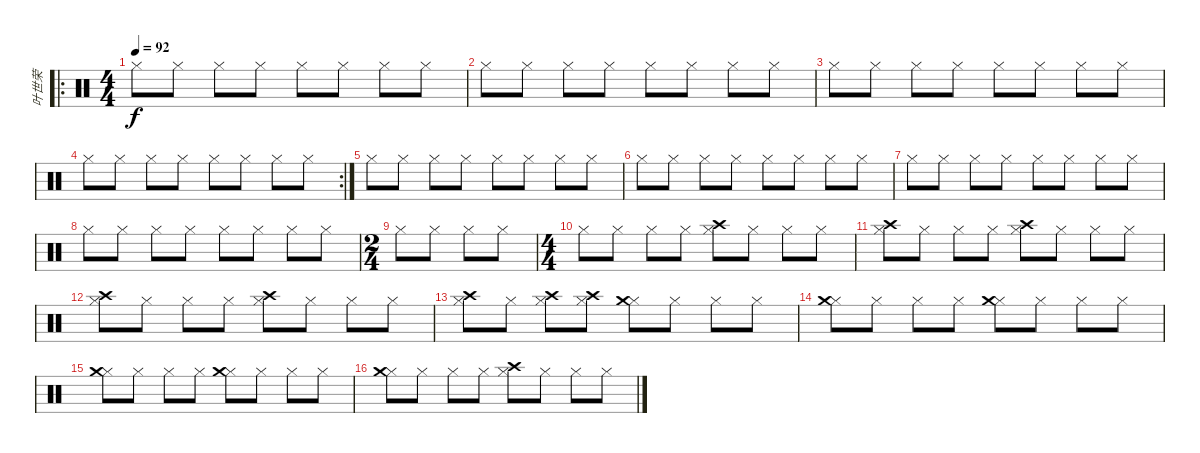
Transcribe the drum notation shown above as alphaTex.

\track ("叶世荣" "叶世荣") {instrument percussion}
\staff {score}
\articulation defaults
\ro
\ts (4 4)
\tempo 92
\clef neutral
\ks c "Hi-Hat (closed)".8{dy f} "Hi-Hat (closed)".8 "Hi-Hat (closed)".8 "Hi-Hat (closed)".8 "Hi-Hat (closed)".8 "Hi-Hat (closed)".8 "Hi-Hat (closed)".8 "Hi-Hat (closed)".8
|
"Hi-Hat (closed)".8 "Hi-Hat (closed)".8 "Hi-Hat (closed)".8 "Hi-Hat (closed)".8 "Hi-Hat (closed)".8 "Hi-Hat (closed)".8 "Hi-Hat (closed)".8 "Hi-Hat (closed)".8 |
"Hi-Hat (closed)".8 "Hi-Hat (closed)".8 "Hi-Hat (closed)".8 "Hi-Hat (closed)".8 "Hi-Hat (closed)".8 "Hi-Hat (closed)".8 "Hi-Hat (closed)".8 "Hi-Hat (closed)".8 |
\rc 2 "Hi-Hat (closed)".8 "Hi-Hat (closed)".8 "Hi-Hat (closed)".8 "Hi-Hat (closed)".8 "Hi-Hat (closed)".8 "Hi-Hat (closed)".8 "Hi-Hat (closed)".8 "Hi-Hat (closed)".8
|
"Hi-Hat (closed)".8 "Hi-Hat (closed)".8 "Hi-Hat (closed)".8 "Hi-Hat (closed)".8 "Hi-Hat (closed)".8 "Hi-Hat (closed)".8 "Hi-Hat (closed)".8 "Hi-Hat (closed)".8 |
"Hi-Hat (closed)".8 "Hi-Hat (closed)".8 "Hi-Hat (closed)".8 "Hi-Hat (closed)".8 "Hi-Hat (closed)".8 "Hi-Hat (closed)".8 "Hi-Hat (closed)".8 "Hi-Hat (closed)".8 |
"Hi-Hat (closed)".8 "Hi-Hat (closed)".8 "Hi-Hat (closed)".8 "Hi-Hat (closed)".8 "Hi-Hat (closed)".8 "Hi-Hat (closed)".8 "Hi-Hat (closed)".8 "Hi-Hat (closed)".8 |
"Hi-Hat (closed)".8 "Hi-Hat (closed)".8 "Hi-Hat (closed)".8 "Hi-Hat (closed)".8 "Hi-Hat (closed)".8 "Hi-Hat (closed)".8 "Hi-Hat (closed)".8 "Hi-Hat (closed)".8 |
\ts (2 4)
"Hi-Hat (closed)".8 "Hi-Hat (closed)".8 "Hi-Hat (closed)".8 "Hi-Hat (closed)".8 |
\ts (4 4)
"Hi-Hat (closed)".8 "Hi-Hat (closed)".8 "Hi-Hat (closed)".8 "Hi-Hat (closed)".8 ("Hi-Hat (closed)" "Crash high (hit)").8 "Hi-Hat (closed)".8 "Hi-Hat (closed)".8 "Hi-Hat (closed)".8 |
("Hi-Hat (closed)" "Crash high (hit)").8 "Hi-Hat (closed)".8 "Hi-Hat (closed)".8 "Hi-Hat (closed)".8 ("Hi-Hat (closed)" "Crash high (hit)").8 "Hi-Hat (closed)".8 "Hi-Hat (closed)".8 "Hi-Hat (closed)".8 |
("Hi-Hat (closed)" "Crash high (hit)").8 "Hi-Hat (closed)".8 "Hi-Hat (closed)".8 "Hi-Hat (closed)".8 ("Hi-Hat (closed)" "Crash high (hit)").8 "Hi-Hat (closed)".8 "Hi-Hat (closed)".8 "Hi-Hat (closed)".8 |
("Hi-Hat (closed)" "Crash high (hit)").8 "Hi-Hat (closed)".8 ("Hi-Hat (closed)" "Crash high (hit)").8 ("Hi-Hat (closed)" "Crash high (hit)").8 ("Hi-Hat (closed)" "Crash medium (hit)").8 "Hi-Hat (closed)".8 "Hi-Hat (closed)".8 "Hi-Hat (closed)".8 |
("Hi-Hat (closed)" "Crash medium (hit)").8 "Hi-Hat (closed)".8 "Hi-Hat (closed)".8 "Hi-Hat (closed)".8 ("Hi-Hat (closed)" "Crash medium (hit)").8 "Hi-Hat (closed)".8 "Hi-Hat (closed)".8 "Hi-Hat (closed)".8 |
("Hi-Hat (closed)" "Crash medium (hit)").8 "Hi-Hat (closed)".8 "Hi-Hat (closed)".8 "Hi-Hat (closed)".8 ("Hi-Hat (closed)" "Crash medium (hit)").8 "Hi-Hat (closed)".8 "Hi-Hat (closed)".8 "Hi-Hat (closed)".8 |
("Hi-Hat (closed)" "Crash medium (hit)").8 "Hi-Hat (closed)".8 "Hi-Hat (closed)".8 "Hi-Hat (closed)".8 ("Hi-Hat (closed)" "Crash high (hit)").8 "Hi-Hat (closed)".8 "Hi-Hat (closed)".8 "Hi-Hat (closed)".8
